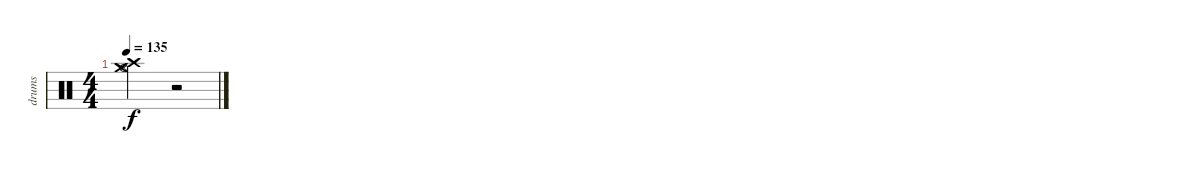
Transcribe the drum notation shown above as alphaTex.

\track ("drums" "drums") {instrument percussion}
\staff {score}
\articulation defaults
\ts (4 4)
\tempo 135
\clef neutral
\ks c
("Crash high (hit)" "Crash medium (hit)" "Hi-Hat (open)").2{dy f} r.2
